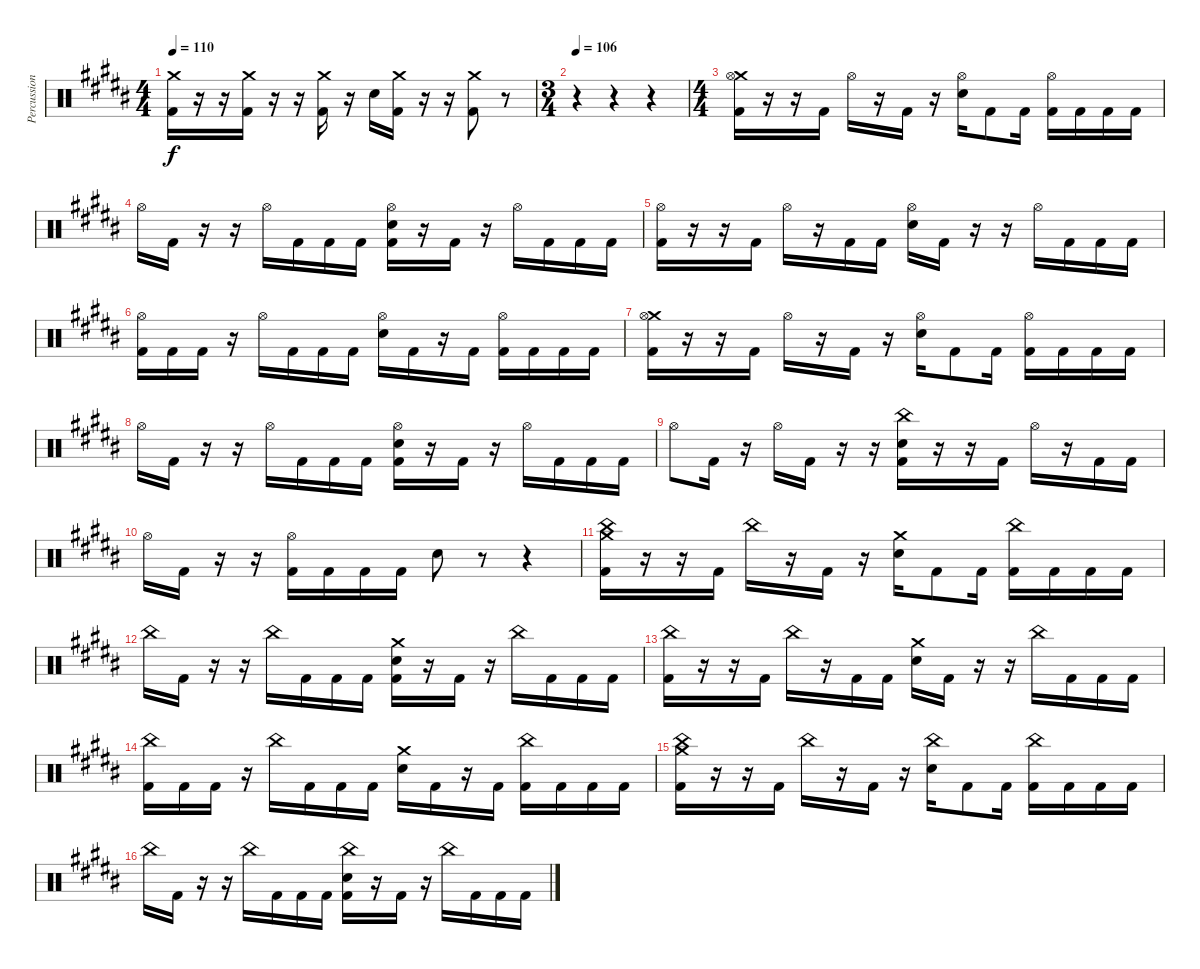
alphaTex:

\track ("Percussion" "Percussion") {instrument percussion}
\staff {score}
\articulation defaults
\ts (4 4)
\tempo 110
\clef neutral
\ks g#minor
("Crash medium (hit)" "Kick (hit) 2").16{dy f} r.16 r.16 ("Crash medium (hit)" "Kick (hit) 2").16 r.16 r.16 ("Crash medium (hit)" "Kick (hit) 2").16 r.16 "Electric Snare (hit)".16 ("Crash medium (hit)" "Kick (hit) 2").16 r.16 r.16 ("Crash medium (hit)" "Kick (hit) 2").8 r.8 |
\ts (3 4)
\tempo 106
r.4 r.4 r.4 |
\ts (4 4)
("Crash medium (hit)" "Hi-Hat (open)" "Kick (hit) 2").16 r.16 r.16 "Kick (hit) 2".16 "Hi-Hat (open)".16 r.16 "Kick (hit) 2".16 r.16 ("Hi-Hat (open)" "Electric Snare (hit)").16 "Kick (hit) 2".8 "Kick (hit) 2".16 ("Hi-Hat (open)" "Kick (hit) 2").16 "Kick (hit) 2".16 "Kick (hit) 2".16 "Kick (hit) 2".16 |
"Hi-Hat (open)".16 "Kick (hit) 2".16 r.16 r.16 "Hi-Hat (open)".16 "Kick (hit) 2".16 "Kick (hit) 2".16 "Kick (hit) 2".16 ("Hi-Hat (open)" "Electric Snare (hit)" "Kick (hit) 2").16 r.16 "Kick (hit) 2".16 r.16 "Hi-Hat (open)".16 "Kick (hit) 2".16 "Kick (hit) 2".16 "Kick (hit) 2".16 |
("Hi-Hat (open)" "Kick (hit) 2").16 r.16 r.16 "Kick (hit) 2".16 "Hi-Hat (open)".16 r.16 "Kick (hit) 2".16 "Kick (hit) 2".16 ("Hi-Hat (open)" "Electric Snare (hit)").16 "Kick (hit) 2".16 r.16 r.16 "Hi-Hat (open)".16 "Kick (hit) 2".16 "Kick (hit) 2".16 "Kick (hit) 2".16 |
("Hi-Hat (open)" "Kick (hit) 2").16 "Kick (hit) 2".16 "Kick (hit) 2".16 r.16 "Hi-Hat (open)".16 "Kick (hit) 2".16 "Kick (hit) 2".16 "Kick (hit) 2".16 ("Hi-Hat (open)" "Electric Snare (hit)").16 "Kick (hit) 2".16 r.16 "Kick (hit) 2".16 ("Hi-Hat (open)" "Kick (hit) 2").16 "Kick (hit) 2".16 "Kick (hit) 2".16 "Kick (hit) 2".16 |
("Crash medium (hit)" "Hi-Hat (open)" "Kick (hit) 2").16 r.16 r.16 "Kick (hit) 2".16 "Hi-Hat (open)".16 r.16 "Kick (hit) 2".16 r.16 ("Hi-Hat (open)" "Electric Snare (hit)").16 "Kick (hit) 2".8 "Kick (hit) 2".16 ("Hi-Hat (open)" "Kick (hit) 2").16 "Kick (hit) 2".16 "Kick (hit) 2".16 "Kick (hit) 2".16 |
"Hi-Hat (open)".16 "Kick (hit) 2".16 r.16 r.16 "Hi-Hat (open)".16 "Kick (hit) 2".16 "Kick (hit) 2".16 "Kick (hit) 2".16 ("Hi-Hat (open)" "Electric Snare (hit)" "Kick (hit) 2").16 r.16 "Kick (hit) 2".16 r.16 "Hi-Hat (open)".16 "Kick (hit) 2".16 "Kick (hit) 2".16 "Kick (hit) 2".16 |
"Hi-Hat (open)".8 "Kick (hit) 2".16 r.16 "Hi-Hat (open)".16 "Kick (hit) 2".16 r.16 r.16 ("China (hit)" "Electric Snare (hit)" "Kick (hit) 2").16 r.16 r.16 "Kick (hit) 2".16 "Hi-Hat (open)".16 r.16 "Kick (hit) 2".16 "Kick (hit) 2".16 |
"Hi-Hat (open)".16 "Kick (hit) 2".16 r.16 r.16 ("Hi-Hat (open)" "Kick (hit) 2").16 "Kick (hit) 2".16 "Kick (hit) 2".16 "Kick (hit) 2".16 "Electric Snare (hit)".8 r.8 r.4 |
("Crash medium (hit)" "China (hit)" "Kick (hit) 2").16 r.16 r.16 "Kick (hit) 2".16 "China (hit)".16 r.16 "Kick (hit) 2".16 r.16 ("Crash medium (hit)" "Electric Snare (hit)").16 "Kick (hit) 2".8 "Kick (hit) 2".16 ("China (hit)" "Kick (hit) 2").16 "Kick (hit) 2".16 "Kick (hit) 2".16 "Kick (hit) 2".16 |
"China (hit)".16 "Kick (hit) 2".16 r.16 r.16 "China (hit)".16 "Kick (hit) 2".16 "Kick (hit) 2".16 "Kick (hit) 2".16 ("Crash medium (hit)" "Electric Snare (hit)" "Kick (hit) 2").16 r.16 "Kick (hit) 2".16 r.16 "China (hit)".16 "Kick (hit) 2".16 "Kick (hit) 2".16 "Kick (hit) 2".16 |
("China (hit)" "Kick (hit) 2").16 r.16 r.16 "Kick (hit) 2".16 "China (hit)".16 r.16 "Kick (hit) 2".16 "Kick (hit) 2".16 ("Crash medium (hit)" "Electric Snare (hit)").16 "Kick (hit) 2".16 r.16 r.16 "China (hit)".16 "Kick (hit) 2".16 "Kick (hit) 2".16 "Kick (hit) 2".16 |
("China (hit)" "Kick (hit) 2").16 "Kick (hit) 2".16 "Kick (hit) 2".16 r.16 "China (hit)".16 "Kick (hit) 2".16 "Kick (hit) 2".16 "Kick (hit) 2".16 ("Crash medium (hit)" "Electric Snare (hit)").16 "Kick (hit) 2".16 r.16 "Kick (hit) 2".16 ("China (hit)" "Kick (hit) 2").16 "Kick (hit) 2".16 "Kick (hit) 2".16 "Kick (hit) 2".16 |
("Crash medium (hit)" "China (hit)" "Kick (hit) 2").16 r.16 r.16 "Kick (hit) 2".16 "China (hit)".16 r.16 "Kick (hit) 2".16 r.16 ("China (hit)" "Electric Snare (hit)").16 "Kick (hit) 2".8 "Kick (hit) 2".16 ("China (hit)" "Kick (hit) 2").16 "Kick (hit) 2".16 "Kick (hit) 2".16 "Kick (hit) 2".16 |
"China (hit)".16 "Kick (hit) 2".16 r.16 r.16 "China (hit)".16 "Kick (hit) 2".16 "Kick (hit) 2".16 "Kick (hit) 2".16 ("China (hit)" "Electric Snare (hit)" "Kick (hit) 2").16 r.16 "Kick (hit) 2".16 r.16 "China (hit)".16 "Kick (hit) 2".16 "Kick (hit) 2".16 "Kick (hit) 2".16
